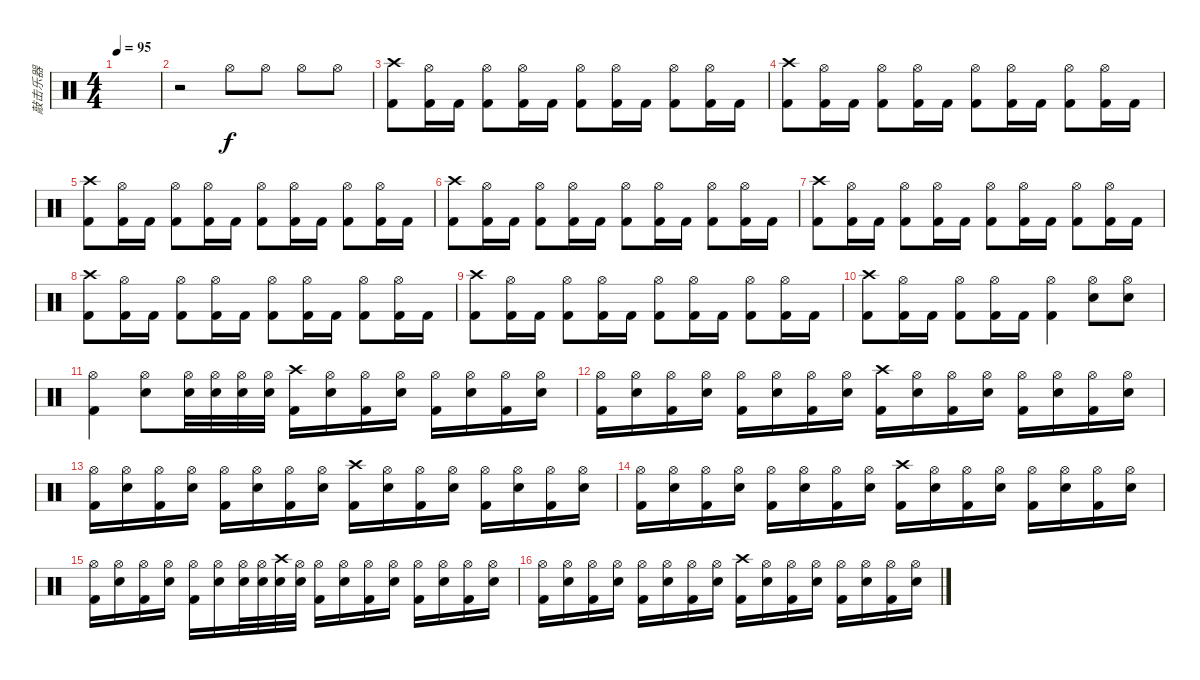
\track ("敲击乐器" "敲击乐器") {instrument percussion}
\staff {score}
\articulation defaults
\ts (4 4)
\tempo 95
\clef neutral
\ks c
|
r.2 "Hi-Hat (open)".8 "Hi-Hat (open)".8 "Hi-Hat (open)".8 "Hi-Hat (open)".8 |
("Crash high (hit)" "Kick (hit) 2").8 ("Hi-Hat (open)" "Kick (hit) 2").16 "Kick (hit) 2".16 ("Hi-Hat (open)" "Kick (hit) 2").8 ("Hi-Hat (open)" "Kick (hit) 2").16 "Kick (hit) 2".16 ("Hi-Hat (open)" "Kick (hit) 2").8 ("Hi-Hat (open)" "Kick (hit) 2").16 "Kick (hit) 2".16 ("Hi-Hat (open)" "Kick (hit) 2").8 ("Hi-Hat (open)" "Kick (hit) 2").16 "Kick (hit) 2".16 |
("Crash high (hit)" "Kick (hit) 2").8 ("Hi-Hat (open)" "Kick (hit) 2").16 "Kick (hit) 2".16 ("Hi-Hat (open)" "Kick (hit) 2").8 ("Hi-Hat (open)" "Kick (hit) 2").16 "Kick (hit) 2".16 ("Hi-Hat (open)" "Kick (hit) 2").8 ("Hi-Hat (open)" "Kick (hit) 2").16 "Kick (hit) 2".16 ("Hi-Hat (open)" "Kick (hit) 2").8 ("Hi-Hat (open)" "Kick (hit) 2").16 "Kick (hit) 2".16 |
("Crash high (hit)" "Kick (hit) 2").8 ("Hi-Hat (open)" "Kick (hit) 2").16 "Kick (hit) 2".16 ("Hi-Hat (open)" "Kick (hit) 2").8 ("Hi-Hat (open)" "Kick (hit) 2").16 "Kick (hit) 2".16 ("Hi-Hat (open)" "Kick (hit) 2").8 ("Hi-Hat (open)" "Kick (hit) 2").16 "Kick (hit) 2".16 ("Hi-Hat (open)" "Kick (hit) 2").8 ("Hi-Hat (open)" "Kick (hit) 2").16 "Kick (hit) 2".16 |
("Crash high (hit)" "Kick (hit) 2").8 ("Hi-Hat (open)" "Kick (hit) 2").16 "Kick (hit) 2".16 ("Hi-Hat (open)" "Kick (hit) 2").8 ("Hi-Hat (open)" "Kick (hit) 2").16 "Kick (hit) 2".16 ("Hi-Hat (open)" "Kick (hit) 2").8 ("Hi-Hat (open)" "Kick (hit) 2").16 "Kick (hit) 2".16 ("Hi-Hat (open)" "Kick (hit) 2").8 ("Hi-Hat (open)" "Kick (hit) 2").16 "Kick (hit) 2".16 |
("Crash high (hit)" "Kick (hit) 2").8 ("Hi-Hat (open)" "Kick (hit) 2").16 "Kick (hit) 2".16 ("Hi-Hat (open)" "Kick (hit) 2").8 ("Hi-Hat (open)" "Kick (hit) 2").16 "Kick (hit) 2".16 ("Hi-Hat (open)" "Kick (hit) 2").8 ("Hi-Hat (open)" "Kick (hit) 2").16 "Kick (hit) 2".16 ("Hi-Hat (open)" "Kick (hit) 2").8 ("Hi-Hat (open)" "Kick (hit) 2").16 "Kick (hit) 2".16 |
("Crash high (hit)" "Kick (hit) 2").8 ("Hi-Hat (open)" "Kick (hit) 2").16 "Kick (hit) 2".16 ("Hi-Hat (open)" "Kick (hit) 2").8 ("Hi-Hat (open)" "Kick (hit) 2").16 "Kick (hit) 2".16 ("Hi-Hat (open)" "Kick (hit) 2").8 ("Hi-Hat (open)" "Kick (hit) 2").16 "Kick (hit) 2".16 ("Hi-Hat (open)" "Kick (hit) 2").8 ("Hi-Hat (open)" "Kick (hit) 2").16 "Kick (hit) 2".16 |
("Crash high (hit)" "Kick (hit) 2").8 ("Hi-Hat (open)" "Kick (hit) 2").16 "Kick (hit) 2".16 ("Hi-Hat (open)" "Kick (hit) 2").8 ("Hi-Hat (open)" "Kick (hit) 2").16 "Kick (hit) 2".16 ("Hi-Hat (open)" "Kick (hit) 2").8 ("Hi-Hat (open)" "Kick (hit) 2").16 "Kick (hit) 2".16 ("Hi-Hat (open)" "Kick (hit) 2").8 ("Hi-Hat (open)" "Kick (hit) 2").16 "Kick (hit) 2".16 |
("Crash high (hit)" "Kick (hit) 2").8 ("Hi-Hat (open)" "Kick (hit) 2").16 "Kick (hit) 2".16 ("Hi-Hat (open)" "Kick (hit) 2").8 ("Hi-Hat (open)" "Kick (hit) 2").16 "Kick (hit) 2".16 ("Hi-Hat (open)" "Kick (hit) 2").4 ("Hi-Hat (open)" "Snare (hit) 2").8 ("Hi-Hat (open)" "Snare (hit) 2").8 |
("Hi-Hat (open)" "Kick (hit) 2").4 ("Hi-Hat (open)" "Snare (hit) 2").8 ("Hi-Hat (open)" "Snare (hit) 2").32 ("Hi-Hat (open)" "Snare (hit) 2").32 ("Hi-Hat (open)" "Snare (hit) 2").32 ("Hi-Hat (open)" "Snare (hit) 2").32 ("Crash high (hit)" "Kick (hit) 2").16 ("Hi-Hat (open)" "Snare (hit) 2").16 ("Hi-Hat (open)" "Kick (hit) 2").16 ("Hi-Hat (open)" "Snare (hit) 2").16 ("Hi-Hat (open)" "Kick (hit) 2").16 ("Hi-Hat (open)" "Snare (hit) 2").16 ("Hi-Hat (open)" "Kick (hit) 2").16 ("Hi-Hat (open)" "Snare (hit) 2").16 |
("Hi-Hat (open)" "Kick (hit) 2").16 ("Hi-Hat (open)" "Snare (hit) 2").16 ("Hi-Hat (open)" "Kick (hit) 2").16 ("Hi-Hat (open)" "Snare (hit) 2").16 ("Hi-Hat (open)" "Kick (hit) 2").16 ("Hi-Hat (open)" "Snare (hit) 2").16 ("Hi-Hat (open)" "Kick (hit) 2").16 ("Hi-Hat (open)" "Snare (hit) 2").16 ("Crash high (hit)" "Kick (hit) 2").16 ("Hi-Hat (open)" "Snare (hit) 2").16 ("Hi-Hat (open)" "Kick (hit) 2").16 ("Hi-Hat (open)" "Snare (hit) 2").16 ("Hi-Hat (open)" "Kick (hit) 2").16 ("Hi-Hat (open)" "Snare (hit) 2").16 ("Hi-Hat (open)" "Kick (hit) 2").16 ("Hi-Hat (open)" "Snare (hit) 2").16 |
("Hi-Hat (open)" "Kick (hit) 2").16 ("Hi-Hat (open)" "Snare (hit) 2").16 ("Hi-Hat (open)" "Kick (hit) 2").16 ("Hi-Hat (open)" "Snare (hit) 2").16 ("Hi-Hat (open)" "Kick (hit) 2").16 ("Hi-Hat (open)" "Snare (hit) 2").16 ("Hi-Hat (open)" "Kick (hit) 2").16 ("Hi-Hat (open)" "Snare (hit) 2").16 ("Crash high (hit)" "Kick (hit) 2").16 ("Hi-Hat (open)" "Snare (hit) 2").16 ("Hi-Hat (open)" "Kick (hit) 2").16 ("Hi-Hat (open)" "Snare (hit) 2").16 ("Hi-Hat (open)" "Kick (hit) 2").16 ("Hi-Hat (open)" "Snare (hit) 2").16 ("Hi-Hat (open)" "Kick (hit) 2").16 ("Hi-Hat (open)" "Snare (hit) 2").16 |
("Hi-Hat (open)" "Kick (hit) 2").16 ("Hi-Hat (open)" "Snare (hit) 2").16 ("Hi-Hat (open)" "Kick (hit) 2").16 ("Hi-Hat (open)" "Snare (hit) 2").16 ("Hi-Hat (open)" "Kick (hit) 2").16 ("Hi-Hat (open)" "Snare (hit) 2").16 ("Hi-Hat (open)" "Kick (hit) 2").16 ("Hi-Hat (open)" "Snare (hit) 2").16 ("Crash high (hit)" "Kick (hit) 2").16 ("Hi-Hat (open)" "Snare (hit) 2").16 ("Hi-Hat (open)" "Kick (hit) 2").16 ("Hi-Hat (open)" "Snare (hit) 2").16 ("Hi-Hat (open)" "Kick (hit) 2").16 ("Hi-Hat (open)" "Snare (hit) 2").16 ("Hi-Hat (open)" "Kick (hit) 2").16 ("Hi-Hat (open)" "Snare (hit) 2").16 |
("Hi-Hat (open)" "Kick (hit) 2").16 ("Hi-Hat (open)" "Snare (hit) 2").16 ("Hi-Hat (open)" "Kick (hit) 2").16 ("Hi-Hat (open)" "Snare (hit) 2").16 ("Hi-Hat (open)" "Kick (hit) 2").16 ("Hi-Hat (open)" "Snare (hit) 2").16 ("Hi-Hat (open)" "Snare (hit) 2").32 ("Hi-Hat (open)" "Snare (hit) 2").32 ("Crash high (hit)" "Snare (hit) 2").32 ("Hi-Hat (open)" "Snare (hit) 2").32 ("Hi-Hat (open)" "Kick (hit) 2").16 ("Hi-Hat (open)" "Snare (hit) 2").16 ("Hi-Hat (open)" "Kick (hit) 2").16 ("Hi-Hat (open)" "Snare (hit) 2").16 ("Hi-Hat (open)" "Kick (hit) 2").16 ("Hi-Hat (open)" "Snare (hit) 2").16 ("Hi-Hat (open)" "Kick (hit) 2").16 ("Hi-Hat (open)" "Snare (hit) 2").16 |
("Hi-Hat (open)" "Kick (hit) 2").16 ("Hi-Hat (open)" "Snare (hit) 2").16 ("Hi-Hat (open)" "Kick (hit) 2").16 ("Hi-Hat (open)" "Snare (hit) 2").16 ("Hi-Hat (open)" "Kick (hit) 2").16 ("Hi-Hat (open)" "Snare (hit) 2").16 ("Hi-Hat (open)" "Kick (hit) 2").16 ("Hi-Hat (open)" "Snare (hit) 2").16 ("Crash high (hit)" "Kick (hit) 2").16 ("Hi-Hat (open)" "Snare (hit) 2").16 ("Hi-Hat (open)" "Kick (hit) 2").16 ("Hi-Hat (open)" "Snare (hit) 2").16 ("Hi-Hat (open)" "Kick (hit) 2").16 ("Hi-Hat (open)" "Snare (hit) 2").16 ("Hi-Hat (open)" "Kick (hit) 2").16 ("Hi-Hat (open)" "Snare (hit) 2").16
